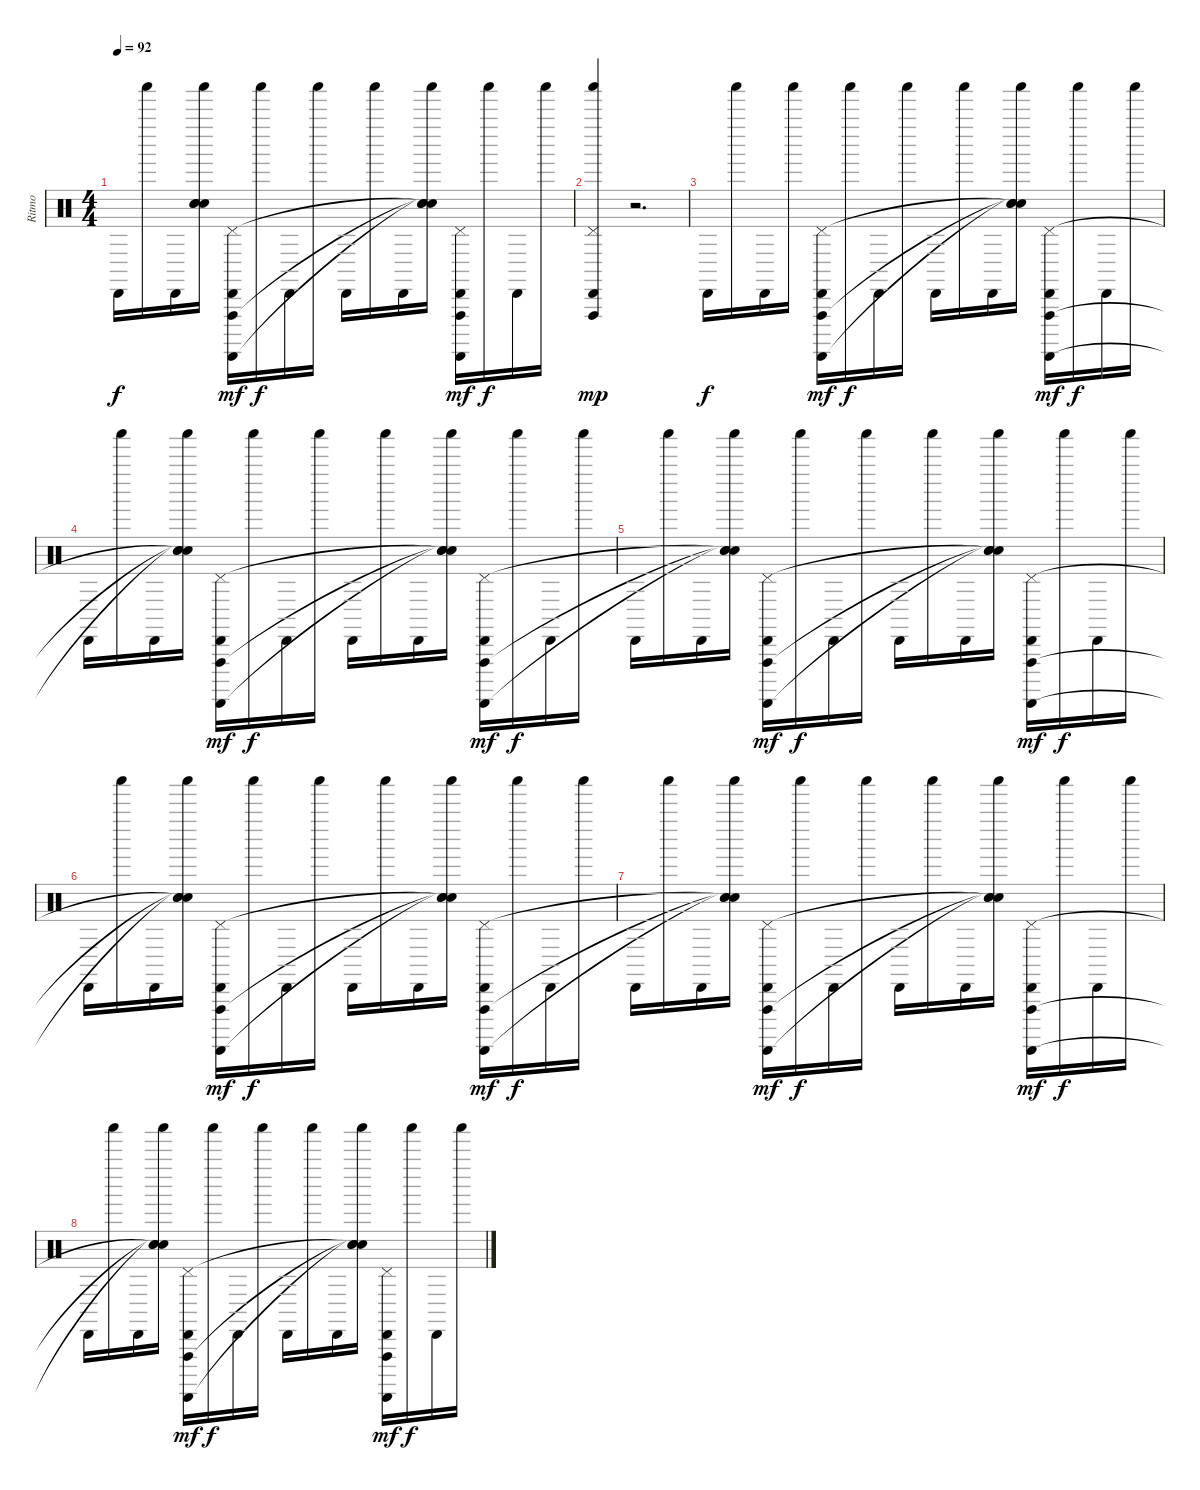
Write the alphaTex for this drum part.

\track ("Ritmo" "Ritmo") {instrument percussion}
\staff {score}
\articulation defaults
\ts (4 4)
\tempo 92
\clef neutral
\ks c "Cabasa (hit)".16{dy f} "Shaker (hit)".16 "Cabasa (hit)".16
("Shaker (hit)" "Snare (hit)"{t} "Snare (hit)"{t} "Snare (hit)"{t}).16 ("Cabasa (hit)" "Vibraslap (hit)" "Guiro (scrap-return)" "Pedal Hi-Hat (hit)").16{dy mf} "Shaker (hit)".16{dy f} "Cabasa (hit)".16 "Shaker (hit)".16 "Cabasa (hit)".16 "Shaker (hit)".16 "Cabasa (hit)".16 ("Shaker (hit)" "Snare (hit)"{t} "Snare (hit)"{t} "Snare (hit)"{t}).16 ("Cabasa (hit)" "Vibraslap (hit)" "Guiro (scrap-return)" "Pedal Hi-Hat (hit)").16{dy mf} "Shaker (hit)".16{dy f} "Cabasa (hit)".16 "Shaker (hit)".16 |
("Cabasa (hit)" "Shaker (hit)" "Pedal Hi-Hat (hit)" "Vibraslap (hit)").4{dy mp} r.2{d} |
"Cabasa (hit)".16{dy f} "Shaker (hit)".16 "Cabasa (hit)".16 "Shaker (hit)".16 ("Cabasa (hit)" "Vibraslap (hit)" "Guiro (scrap-return)" "Pedal Hi-Hat (hit)").16{dy mf} "Shaker (hit)".16{dy f} "Cabasa (hit)".16 "Shaker (hit)".16 "Cabasa (hit)".16 "Shaker (hit)".16 "Cabasa (hit)".16 ("Shaker (hit)" "Snare (hit)"{t} "Snare (hit)"{t} "Snare (hit)"{t}).16 ("Cabasa (hit)" "Vibraslap (hit)" "Guiro (scrap-return)" "Pedal Hi-Hat (hit)").16{dy mf} "Shaker (hit)".16{dy f} "Cabasa (hit)".16 "Shaker (hit)".16 |
"Cabasa (hit)".16 "Shaker (hit)".16 "Cabasa (hit)".16 ("Shaker (hit)" "Snare (hit)"{t} "Snare (hit)"{t} "Snare (hit)"{t}).16 ("Cabasa (hit)" "Vibraslap (hit)" "Guiro (scrap-return)" "Pedal Hi-Hat (hit)").16{dy mf} "Shaker (hit)".16{dy f} "Cabasa (hit)".16 "Shaker (hit)".16 "Cabasa (hit)".16 "Shaker (hit)".16 "Cabasa (hit)".16 ("Shaker (hit)" "Snare (hit)"{t} "Snare (hit)"{t} "Snare (hit)"{t}).16 ("Cabasa (hit)" "Vibraslap (hit)" "Guiro (scrap-return)" "Pedal Hi-Hat (hit)").16{dy mf} "Shaker (hit)".16{dy f} "Cabasa (hit)".16 "Shaker (hit)".16 |
"Cabasa (hit)".16 "Shaker (hit)".16 "Cabasa (hit)".16 ("Shaker (hit)" "Snare (hit)"{t} "Snare (hit)"{t} "Snare (hit)"{t}).16 ("Cabasa (hit)" "Vibraslap (hit)" "Guiro (scrap-return)" "Pedal Hi-Hat (hit)").16{dy mf} "Shaker (hit)".16{dy f} "Cabasa (hit)".16 "Shaker (hit)".16 "Cabasa (hit)".16 "Shaker (hit)".16 "Cabasa (hit)".16 ("Shaker (hit)" "Snare (hit)"{t} "Snare (hit)"{t} "Snare (hit)"{t}).16 ("Cabasa (hit)" "Vibraslap (hit)" "Guiro (scrap-return)" "Pedal Hi-Hat (hit)").16{dy mf} "Shaker (hit)".16{dy f} "Cabasa (hit)".16 "Shaker (hit)".16 |
"Cabasa (hit)".16 "Shaker (hit)".16 "Cabasa (hit)".16 ("Shaker (hit)" "Snare (hit)"{t} "Snare (hit)"{t} "Snare (hit)"{t}).16 ("Cabasa (hit)" "Vibraslap (hit)" "Guiro (scrap-return)" "Pedal Hi-Hat (hit)").16{dy mf} "Shaker (hit)".16{dy f} "Cabasa (hit)".16 "Shaker (hit)".16 "Cabasa (hit)".16 "Shaker (hit)".16 "Cabasa (hit)".16 ("Shaker (hit)" "Snare (hit)"{t} "Snare (hit)"{t} "Snare (hit)"{t}).16 ("Cabasa (hit)" "Vibraslap (hit)" "Guiro (scrap-return)" "Pedal Hi-Hat (hit)").16{dy mf} "Shaker (hit)".16{dy f} "Cabasa (hit)".16 "Shaker (hit)".16 |
"Cabasa (hit)".16 "Shaker (hit)".16 "Cabasa (hit)".16 ("Shaker (hit)" "Snare (hit)"{t} "Snare (hit)"{t} "Snare (hit)"{t}).16 ("Cabasa (hit)" "Vibraslap (hit)" "Guiro (scrap-return)" "Pedal Hi-Hat (hit)").16{dy mf} "Shaker (hit)".16{dy f} "Cabasa (hit)".16 "Shaker (hit)".16 "Cabasa (hit)".16 "Shaker (hit)".16 "Cabasa (hit)".16 ("Shaker (hit)" "Snare (hit)"{t} "Snare (hit)"{t} "Snare (hit)"{t}).16 ("Cabasa (hit)" "Vibraslap (hit)" "Guiro (scrap-return)" "Pedal Hi-Hat (hit)").16{dy mf} "Shaker (hit)".16{dy f} "Cabasa (hit)".16 "Shaker (hit)".16 |
"Cabasa (hit)".16 "Shaker (hit)".16 "Cabasa (hit)".16 ("Shaker (hit)" "Snare (hit)"{t} "Snare (hit)"{t} "Snare (hit)"{t}).16 ("Cabasa (hit)" "Vibraslap (hit)" "Guiro (scrap-return)" "Pedal Hi-Hat (hit)").16{dy mf} "Shaker (hit)".16{dy f} "Cabasa (hit)".16 "Shaker (hit)".16 "Cabasa (hit)".16 "Shaker (hit)".16 "Cabasa (hit)".16 ("Shaker (hit)" "Snare (hit)"{t} "Snare (hit)"{t} "Snare (hit)"{t}).16 ("Cabasa (hit)" "Vibraslap (hit)" "Guiro (scrap-return)" "Pedal Hi-Hat (hit)").16{dy mf} "Shaker (hit)".16{dy f} "Cabasa (hit)".16 "Shaker (hit)".16
